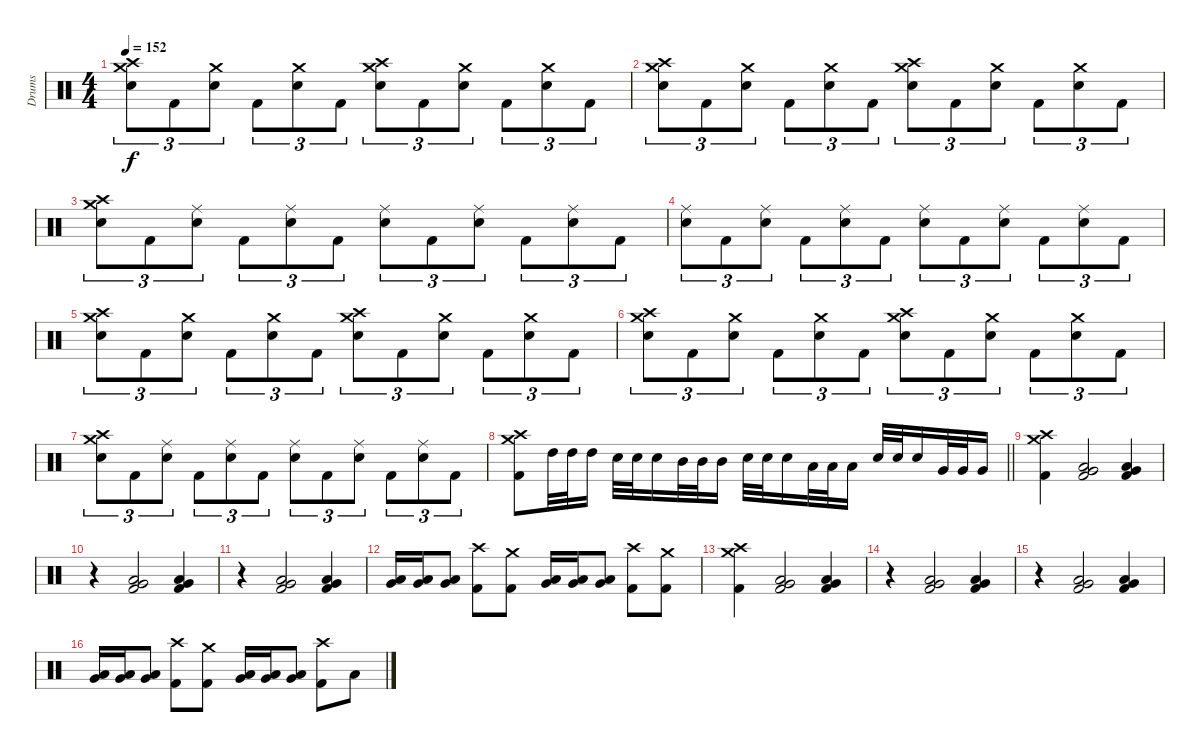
\track ("Drums" "Drums") {instrument percussion}
\staff {score}
\articulation defaults
\ts (4 4)
\tempo 152
\clef neutral
\ks c
("Crash medium (hit)" "Crash high (hit)" "Snare (hit) 2").8{tu (3 2) dy f} "Kick (hit) 2".8{tu (3 2)} ("Crash medium (hit)" "Snare (hit) 2").8{tu (3 2)} "Kick (hit) 2".8{tu (3 2)} ("Crash medium (hit)" "Snare (hit) 2").8{tu (3 2)} "Kick (hit) 2".8{tu (3 2)} ("Crash medium (hit)" "Crash high (hit)" "Snare (hit) 2").8{tu (3 2)} "Kick (hit) 2".8{tu (3 2)} ("Crash medium (hit)" "Snare (hit) 2").8{tu (3 2)} "Kick (hit) 2".8{tu (3 2)} ("Crash medium (hit)" "Snare (hit) 2").8{tu (3 2)} "Kick (hit) 2".8{tu (3 2)} |
("Crash medium (hit)" "Crash high (hit)" "Snare (hit) 2").8{tu (3 2)} "Kick (hit) 2".8{tu (3 2)} ("Crash medium (hit)" "Snare (hit) 2").8{tu (3 2)} "Kick (hit) 2".8{tu (3 2)} ("Crash medium (hit)" "Snare (hit) 2").8{tu (3 2)} "Kick (hit) 2".8{tu (3 2)} ("Crash medium (hit)" "Crash high (hit)" "Snare (hit) 2").8{tu (3 2)} "Kick (hit) 2".8{tu (3 2)} ("Crash medium (hit)" "Snare (hit) 2").8{tu (3 2)} "Kick (hit) 2".8{tu (3 2)} ("Crash medium (hit)" "Snare (hit) 2").8{tu (3 2)} "Kick (hit) 2".8{tu (3 2)} |
("Crash medium (hit)" "Crash high (hit)" "Snare (hit) 2").8{tu (3 2)} "Kick (hit) 2".8{tu (3 2)} ("Ride (middle)" "Snare (hit) 2").8{tu (3 2)} "Kick (hit) 2".8{tu (3 2)} ("Ride (middle)" "Snare (hit) 2").8{tu (3 2)} "Kick (hit) 2".8{tu (3 2)} ("Ride (middle)" "Snare (hit) 2").8{tu (3 2)} "Kick (hit) 2".8{tu (3 2)} ("Ride (middle)" "Snare (hit) 2").8{tu (3 2)} "Kick (hit) 2".8{tu (3 2)} ("Ride (middle)" "Snare (hit) 2").8{tu (3 2)} "Kick (hit) 2".8{tu (3 2)} |
("Ride (middle)" "Snare (hit) 2").8{tu (3 2)} "Kick (hit) 2".8{tu (3 2)} ("Ride (middle)" "Snare (hit) 2").8{tu (3 2)} "Kick (hit) 2".8{tu (3 2)} ("Ride (middle)" "Snare (hit) 2").8{tu (3 2)} "Kick (hit) 2".8{tu (3 2)} ("Ride (middle)" "Snare (hit) 2").8{tu (3 2)} "Kick (hit) 2".8{tu (3 2)} ("Ride (middle)" "Snare (hit) 2").8{tu (3 2)} "Kick (hit) 2".8{tu (3 2)} ("Ride (middle)" "Snare (hit) 2").8{tu (3 2)} "Kick (hit) 2".8{tu (3 2)} |
("Crash medium (hit)" "Crash high (hit)" "Snare (hit) 2").8{tu (3 2)} "Kick (hit) 2".8{tu (3 2)} ("Crash medium (hit)" "Snare (hit) 2").8{tu (3 2)} "Kick (hit) 2".8{tu (3 2)} ("Crash medium (hit)" "Snare (hit) 2").8{tu (3 2)} "Kick (hit) 2".8{tu (3 2)} ("Crash medium (hit)" "Crash high (hit)" "Snare (hit) 2").8{tu (3 2)} "Kick (hit) 2".8{tu (3 2)} ("Crash medium (hit)" "Snare (hit) 2").8{tu (3 2)} "Kick (hit) 2".8{tu (3 2)} ("Crash medium (hit)" "Snare (hit) 2").8{tu (3 2)} "Kick (hit) 2".8{tu (3 2)} |
("Crash medium (hit)" "Crash high (hit)" "Snare (hit) 2").8{tu (3 2)} "Kick (hit) 2".8{tu (3 2)} ("Crash medium (hit)" "Snare (hit) 2").8{tu (3 2)} "Kick (hit) 2".8{tu (3 2)} ("Crash medium (hit)" "Snare (hit) 2").8{tu (3 2)} "Kick (hit) 2".8{tu (3 2)} ("Crash medium (hit)" "Crash high (hit)" "Snare (hit) 2").8{tu (3 2)} "Kick (hit) 2".8{tu (3 2)} ("Crash medium (hit)" "Snare (hit) 2").8{tu (3 2)} "Kick (hit) 2".8{tu (3 2)} ("Crash medium (hit)" "Snare (hit) 2").8{tu (3 2)} "Kick (hit) 2".8{tu (3 2)} |
("Crash medium (hit)" "Crash high (hit)" "Snare (hit) 2").8{tu (3 2)} "Kick (hit) 2".8{tu (3 2)} ("Ride (middle)" "Snare (hit) 2").8{tu (3 2)} "Kick (hit) 2".8{tu (3 2)} ("Ride (middle)" "Snare (hit) 2").8{tu (3 2)} "Kick (hit) 2".8{tu (3 2)} ("Ride (middle)" "Snare (hit) 2").8{tu (3 2)} "Kick (hit) 2".8{tu (3 2)} ("Ride (middle)" "Snare (hit) 2").8{tu (3 2)} "Kick (hit) 2".8{tu (3 2)} ("Ride (middle)" "Snare (hit) 2").8{tu (3 2)} "Kick (hit) 2".8{tu (3 2)} |
\barLineRight lightlight
("Crash medium (hit)" "Crash high (hit)" "Kick (hit) 2").8 "High Tom (hit)".32 "High Tom (hit)".32 "High Tom (hit)".16 "Snare (hit) 2".32 "Snare (hit) 2".32 "Snare (hit) 2".16 "Mid Tom (hit)".32 "Mid Tom (hit)".32 "Mid Tom (hit)".16 "Snare (hit) 2".32 "Snare (hit) 2".32 "Snare (hit) 2".16 "Low Tom (hit)".32 "Low Tom (hit)".32 "Low Tom (hit)".16 "Snare (hit) 2".32 "Snare (hit) 2".32 "Snare (hit) 2".16 "Very Low Tom (hit)".32 "Very Low Tom (hit)".32 "Very Low Tom (hit)".16 |
\section ("" "")
("Crash medium (hit)" "Crash high (hit)" "Kick (hit) 2").4 ("Very Low Tom (hit)" "Low Tom (hit)" "Kick (hit) 2").2 ("Very Low Tom (hit)" "Low Tom (hit)" "Kick (hit) 2").4 |
r.4 ("Very Low Tom (hit)" "Low Tom (hit)" "Kick (hit) 2").2 ("Very Low Tom (hit)" "Low Tom (hit)" "Kick (hit) 2").4 |
r.4 ("Very Low Tom (hit)" "Low Tom (hit)" "Kick (hit) 2").2 ("Very Low Tom (hit)" "Low Tom (hit)" "Kick (hit) 2").4 |
("Very Low Tom (hit)" "Low Tom (hit)").16 ("Very Low Tom (hit)" "Low Tom (hit)").16 ("Very Low Tom (hit)" "Low Tom (hit)").8 ("Crash high (hit)" "Kick (hit) 2").8 ("Crash medium (hit)" "Kick (hit) 2").8 ("Very Low Tom (hit)" "Low Tom (hit)").16 ("Very Low Tom (hit)" "Low Tom (hit)").16 ("Very Low Tom (hit)" "Low Tom (hit)").8 ("Crash high (hit)" "Kick (hit) 2").8 ("Crash medium (hit)" "Kick (hit) 2").8 |
("Crash medium (hit)" "Crash high (hit)" "Kick (hit) 2").4 ("Very Low Tom (hit)" "Low Tom (hit)" "Kick (hit) 2").2 ("Very Low Tom (hit)" "Low Tom (hit)" "Kick (hit) 2").4 |
r.4 ("Very Low Tom (hit)" "Low Tom (hit)" "Kick (hit) 2").2 ("Very Low Tom (hit)" "Low Tom (hit)" "Kick (hit) 2").4 |
r.4 ("Very Low Tom (hit)" "Low Tom (hit)" "Kick (hit) 2").2 ("Very Low Tom (hit)" "Low Tom (hit)" "Kick (hit) 2").4 |
("Very Low Tom (hit)" "Low Tom (hit)").16 ("Very Low Tom (hit)" "Low Tom (hit)").16 ("Very Low Tom (hit)" "Low Tom (hit)").8 ("Crash high (hit)" "Kick (hit) 2").8 ("Crash medium (hit)" "Kick (hit) 2").8 ("Very Low Tom (hit)" "Low Tom (hit)").16 ("Very Low Tom (hit)" "Low Tom (hit)").16 ("Very Low Tom (hit)" "Low Tom (hit)").8 ("Crash high (hit)" "Kick (hit) 2").8 "Low Tom (hit)".8
